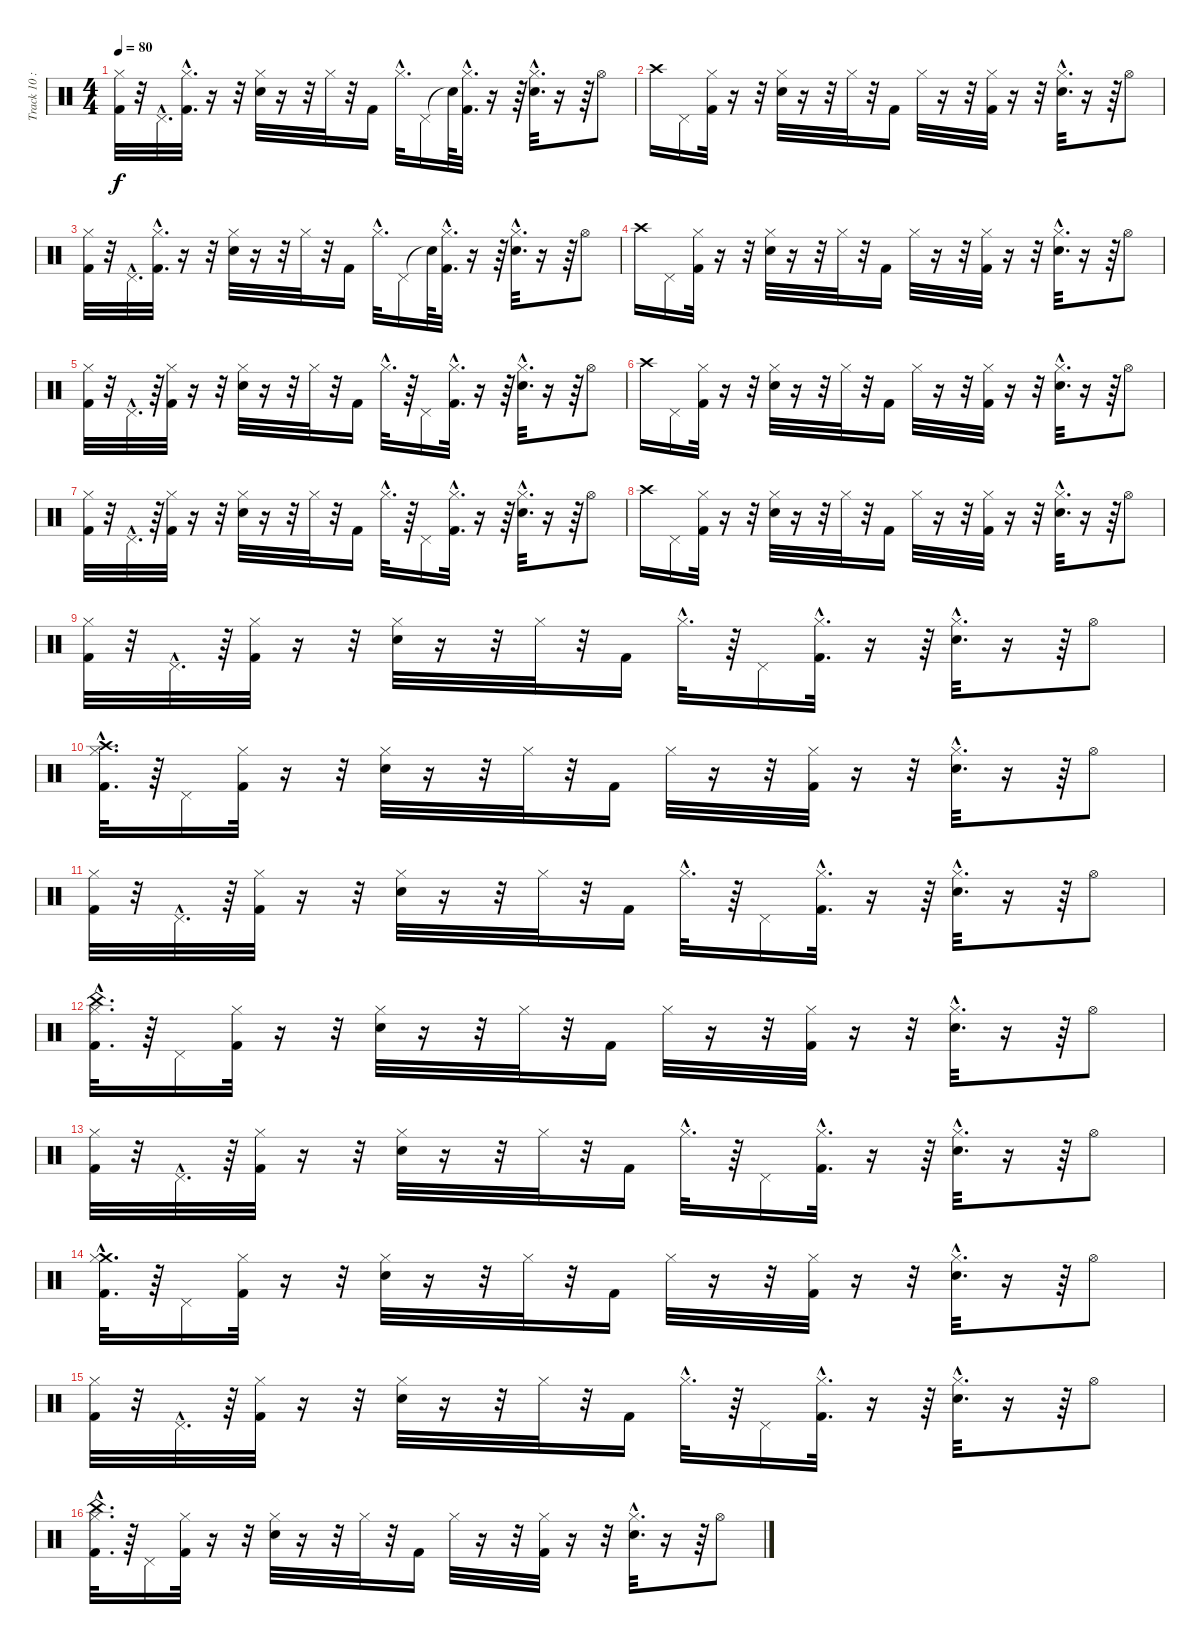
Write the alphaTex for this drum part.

\track ("Track 10 : unspecified" "Track 10 :") {instrument percussion}
\staff {score}
\articulation defaults
\ts (4 4)
\tempo 80
\clef neutral
\ks c
("Hi-Hat (closed)" "Kick (hit) 2").32{dy f} r.32 "Pedal Hi-Hat (hit)"{hac}.32{d} ("Hi-Hat (closed)"{hac} "Kick (hit) 2"{hac}).32{d} r.16 r.32 ("Hi-Hat (closed)" "Snare (hit) 2").32 r.16 r.32 "Hi-Hat (closed)".32 r.32 "Kick (hit) 2".16 "Hi-Hat (closed)"{hac}.32{d} "Pedal Hi-Hat (hit)".16 "Snare (hit)"{t}.64 ("Kick (hit) 2"{hac} "Hi-Hat (closed)"{hac}).32{d} r.16 r.64 ("Hi-Hat (closed)"{hac} "Snare (hit) 2"{hac}).32{d} r.16 r.64 "Hi-Hat (open)".8 |
"Crash high (hit)".16 "Pedal Hi-Hat (hit)".16 ("Kick (hit) 2" "Hi-Hat (closed)").32 r.16 r.32 ("Hi-Hat (closed)" "Snare (hit) 2").32 r.16 r.32 "Hi-Hat (closed)".32 r.32 "Kick (hit) 2".16 "Hi-Hat (closed)".32 r.16 r.32 ("Hi-Hat (closed)" "Kick (hit) 2").32 r.16 r.32 ("Snare (hit) 2"{hac} "Hi-Hat (closed)"{hac}).32{d} r.16 r.64 "Hi-Hat (open)".8 |
("Hi-Hat (closed)" "Kick (hit) 2").32 r.32 "Pedal Hi-Hat (hit)"{hac}.32{d} ("Hi-Hat (closed)"{hac} "Kick (hit) 2"{hac}).32{d} r.16 r.32 ("Snare (hit) 2" "Hi-Hat (closed)").32 r.16 r.32 "Hi-Hat (closed)".32 r.32 "Kick (hit) 2".16 "Hi-Hat (closed)"{hac}.32{d} "Pedal Hi-Hat (hit)".16 "Snare (hit)"{t}.64 ("Hi-Hat (closed)"{hac} "Kick (hit) 2"{hac}).32{d} r.16 r.64 ("Hi-Hat (closed)"{hac} "Snare (hit) 2"{hac}).32{d} r.16 r.64 "Hi-Hat (open)".8 |
"Crash high (hit)".16 "Pedal Hi-Hat (hit)".16 ("Hi-Hat (closed)" "Kick (hit) 2").32 r.16 r.32 ("Hi-Hat (closed)" "Snare (hit) 2").32 r.16 r.32 "Hi-Hat (closed)".32 r.32 "Kick (hit) 2".16 "Hi-Hat (closed)".32 r.16 r.32 ("Kick (hit) 2" "Hi-Hat (closed)").32 r.16 r.32 ("Snare (hit) 2"{hac} "Hi-Hat (closed)"{hac}).32{d} r.16 r.64 "Hi-Hat (open)".8 |
("Kick (hit) 2" "Hi-Hat (closed)").32 r.32 "Pedal Hi-Hat (hit)"{hac}.32{d} r.64 ("Hi-Hat (closed)" "Kick (hit) 2").32 r.16 r.32 ("Snare (hit) 2" "Hi-Hat (closed)").32 r.16 r.32 "Hi-Hat (closed)".32 r.32 "Kick (hit) 2".16 "Hi-Hat (closed)"{hac}.32{d} r.64 "Pedal Hi-Hat (hit)".16 ("Kick (hit) 2"{hac} "Hi-Hat (closed)"{hac}).32{d} r.16 r.64 ("Snare (hit) 2"{hac} "Hi-Hat (closed)"{hac}).32{d} r.16 r.64 "Hi-Hat (open)".8 |
"Crash high (hit)".16 "Pedal Hi-Hat (hit)".16 ("Kick (hit) 2" "Hi-Hat (closed)").32 r.16 r.32 ("Hi-Hat (closed)" "Snare (hit) 2").32 r.16 r.32 "Hi-Hat (closed)".32 r.32 "Kick (hit) 2".16 "Hi-Hat (closed)".32 r.16 r.32 ("Hi-Hat (closed)" "Kick (hit) 2").32 r.16 r.32 ("Snare (hit) 2"{hac} "Hi-Hat (closed)"{hac}).32{d} r.16 r.64 "Hi-Hat (open)".8 |
("Hi-Hat (closed)" "Kick (hit) 2").32 r.32 "Pedal Hi-Hat (hit)"{hac}.32{d} r.64 ("Kick (hit) 2" "Hi-Hat (closed)").32 r.16 r.32 ("Hi-Hat (closed)" "Snare (hit) 2").32 r.16 r.32 "Hi-Hat (closed)".32 r.32 "Kick (hit) 2".16 "Hi-Hat (closed)"{hac}.32{d} r.64 "Pedal Hi-Hat (hit)".16 ("Kick (hit) 2"{hac} "Hi-Hat (closed)"{hac}).32{d} r.16 r.64 ("Snare (hit) 2"{hac} "Hi-Hat (closed)"{hac}).32{d} r.16 r.64 "Hi-Hat (open)".8 |
"Crash high (hit)".16 "Pedal Hi-Hat (hit)".16 ("Kick (hit) 2" "Hi-Hat (closed)").32 r.16 r.32 ("Hi-Hat (closed)" "Snare (hit) 2").32 r.16 r.32 "Hi-Hat (closed)".32 r.32 "Kick (hit) 2".16 "Hi-Hat (closed)".32 r.16 r.32 ("Kick (hit) 2" "Hi-Hat (closed)").32 r.16 r.32 ("Snare (hit) 2"{hac} "Hi-Hat (closed)"{hac}).32{d} r.16 r.64 "Hi-Hat (open)".8 |
("Kick (hit) 2" "Hi-Hat (closed)").32 r.32 "Pedal Hi-Hat (hit)"{hac}.32{d} r.64 ("Hi-Hat (closed)" "Kick (hit) 2").32 r.16 r.32 ("Snare (hit) 2" "Hi-Hat (closed)").32 r.16 r.32 "Hi-Hat (closed)".32 r.32 "Kick (hit) 2".16 "Hi-Hat (closed)"{hac}.32{d} r.64 "Pedal Hi-Hat (hit)".16 ("Hi-Hat (closed)"{hac} "Kick (hit) 2"{hac}).32{d} r.16 r.64 ("Hi-Hat (closed)"{hac} "Snare (hit) 2"{hac}).32{d} r.16 r.64 "Hi-Hat (open)".8 |
("Hi-Hat (closed)"{hac} "Crash high (hit)"{hac} "Kick (hit) 2"{hac}).32{d} r.64 "Pedal Hi-Hat (hit)".16 ("Hi-Hat (closed)" "Kick (hit) 2").32 r.16 r.32 ("Hi-Hat (closed)" "Snare (hit) 2").32 r.16 r.32 "Hi-Hat (closed)".32 r.32 "Kick (hit) 2".16 "Hi-Hat (closed)".32 r.16 r.32 ("Hi-Hat (closed)" "Kick (hit) 2").32 r.16 r.32 ("Hi-Hat (closed)"{hac} "Snare (hit) 2"{hac}).32{d} r.16 r.64 "Hi-Hat (open)".8 |
("Hi-Hat (closed)" "Kick (hit) 2").32 r.32 "Pedal Hi-Hat (hit)"{hac}.32{d} r.64 ("Hi-Hat (closed)" "Kick (hit) 2").32 r.16 r.32 ("Hi-Hat (closed)" "Snare (hit) 2").32 r.16 r.32 "Hi-Hat (closed)".32 r.32 "Kick (hit) 2".16 "Hi-Hat (closed)"{hac}.32{d} r.64 "Pedal Hi-Hat (hit)".16 ("Kick (hit) 2"{hac} "Hi-Hat (closed)"{hac}).32{d} r.16 r.64 ("Hi-Hat (closed)"{hac} "Snare (hit) 2"{hac}).32{d} r.16 r.64 "Hi-Hat (open)".8 |
("China (hit)"{hac} "Kick (hit) 2"{hac} "Hi-Hat (closed)"{hac}).32{d} r.64 "Pedal Hi-Hat (hit)".16 ("Kick (hit) 2" "Hi-Hat (closed)").32 r.16 r.32 ("Snare (hit) 2" "Hi-Hat (closed)").32 r.16 r.32 "Hi-Hat (closed)".32 r.32 "Kick (hit) 2".16 "Hi-Hat (closed)".32 r.16 r.32 ("Kick (hit) 2" "Hi-Hat (closed)").32 r.16 r.32 ("Hi-Hat (closed)"{hac} "Snare (hit) 2"{hac}).32{d} r.16 r.64 "Hi-Hat (open)".8 |
("Kick (hit) 2" "Hi-Hat (closed)").32 r.32 "Pedal Hi-Hat (hit)"{hac}.32{d} r.64 ("Kick (hit) 2" "Hi-Hat (closed)").32 r.16 r.32 ("Snare (hit) 2" "Hi-Hat (closed)").32 r.16 r.32 "Hi-Hat (closed)".32 r.32 "Kick (hit) 2".16 "Hi-Hat (closed)"{hac}.32{d} r.64 "Pedal Hi-Hat (hit)".16 ("Kick (hit) 2"{hac} "Hi-Hat (closed)"{hac}).32{d} r.16 r.64 ("Hi-Hat (closed)"{hac} "Snare (hit) 2"{hac}).32{d} r.16 r.64 "Hi-Hat (open)".8 |
("Kick (hit) 2"{hac} "Crash medium (hit)"{hac} "Hi-Hat (closed)"{hac}).32{d} r.64 "Pedal Hi-Hat (hit)".16 ("Hi-Hat (closed)" "Kick (hit) 2").32 r.16 r.32 ("Hi-Hat (closed)" "Snare (hit) 2").32 r.16 r.32 "Hi-Hat (closed)".32 r.32 "Kick (hit) 2".16 "Hi-Hat (closed)".32 r.16 r.32 ("Hi-Hat (closed)" "Kick (hit) 2").32 r.16 r.32 ("Snare (hit) 2"{hac} "Hi-Hat (closed)"{hac}).32{d} r.16 r.64 "Hi-Hat (open)".8 |
("Kick (hit) 2" "Hi-Hat (closed)").32 r.32 "Pedal Hi-Hat (hit)"{hac}.32{d} r.64 ("Hi-Hat (closed)" "Kick (hit) 2").32 r.16 r.32 ("Hi-Hat (closed)" "Snare (hit) 2").32 r.16 r.32 "Hi-Hat (closed)".32 r.32 "Kick (hit) 2".16 "Hi-Hat (closed)"{hac}.32{d} r.64 "Pedal Hi-Hat (hit)".16 ("Hi-Hat (closed)"{hac} "Kick (hit) 2"{hac}).32{d} r.16 r.64 ("Hi-Hat (closed)"{hac} "Snare (hit) 2"{hac}).32{d} r.16 r.64 "Hi-Hat (open)".8 |
("Kick (hit) 2"{hac} "Hi-Hat (closed)"{hac} "China (hit)"{hac}).32{d} r.64 "Pedal Hi-Hat (hit)".16 ("Hi-Hat (closed)" "Kick (hit) 2").32 r.16 r.32 ("Snare (hit) 2" "Hi-Hat (closed)").32 r.16 r.32 "Hi-Hat (closed)".32 r.32 "Kick (hit) 2".16 "Hi-Hat (closed)".32 r.16 r.32 ("Hi-Hat (closed)" "Kick (hit) 2").32 r.16 r.32 ("Snare (hit) 2"{hac} "Hi-Hat (closed)"{hac}).32{d} r.16 r.64 "Hi-Hat (open)".8
